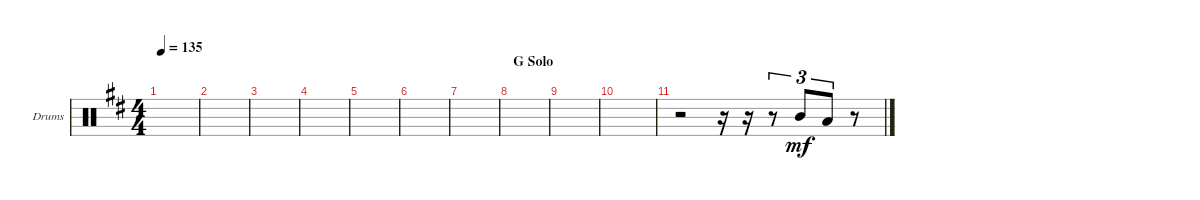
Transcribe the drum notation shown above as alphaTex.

\bracketExtendMode groupsimilarinstruments
\firstSystemTrackNameOrientation horizontal
\otherSystemsTrackNameOrientation horizontal
\track ("Tom" "Drums") {instrument percussion}
\staff {score}
\articulation defaults
\ts (4 4)
\tempo 135
\clef neutral
\ks d
|
|
|
|
|
|
|
\section ("" "G Solo")
|
|
|
r.2 r.16 r.16 r.8{tu (3 2)} "Mid Tom (hit)".8{tu (3 2) dy mf} "Low Tom (hit)".8{tu (3 2)} r.8
